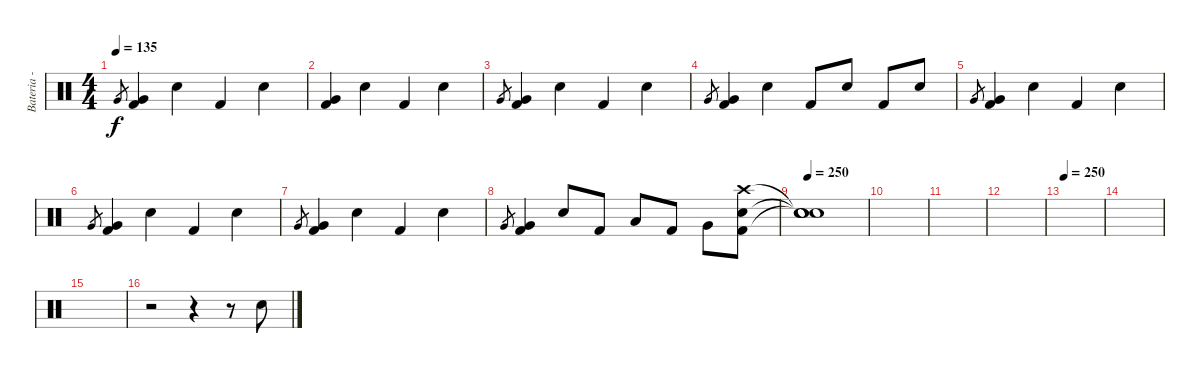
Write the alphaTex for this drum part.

\track ("Bateria - Japinha" "Bateria - ") {instrument percussion}
\staff {score}
\articulation defaults
\ts (4 4)
\tempo 135
\clef neutral
\ks c "Very Low Tom (hit)".8{gr dy f}
("Kick (hit) 2" "Very Low Tom (hit)").4 "Snare (hit) 2".4 "Kick (hit) 2".4 "Snare (hit) 2".4 |
("Kick (hit) 2" "Very Low Tom (hit)").4 "Snare (hit) 2".4 "Kick (hit) 2".4 "Snare (hit) 2".4 |
"Very Low Tom (hit)".8{gr} ("Kick (hit) 2" "Very Low Tom (hit)").4 "Snare (hit) 2".4 "Kick (hit) 2".4 "Snare (hit) 2".4 |
"Very Low Tom (hit)".8{gr} ("Kick (hit) 2" "Very Low Tom (hit)").4 "Snare (hit) 2".4 "Kick (hit) 2".8 "Snare (hit) 2".8 "Kick (hit) 2".8 "Snare (hit) 2".8 |
"Very Low Tom (hit)".8{gr} ("Kick (hit) 2" "Very Low Tom (hit)").4 "Snare (hit) 2".4 "Kick (hit) 2".4 "Snare (hit) 2".4 |
"Very Low Tom (hit)".8{gr} ("Kick (hit) 2" "Very Low Tom (hit)").4 "Snare (hit) 2".4 "Kick (hit) 2".4 "Snare (hit) 2".4 |
"Very Low Tom (hit)".8{gr} ("Kick (hit) 2" "Very Low Tom (hit)").4 "Snare (hit) 2".4 "Kick (hit) 2".4 "Snare (hit) 2".4 |
"Very Low Tom (hit)".8{gr} ("Kick (hit) 2" "Very Low Tom (hit)").4 "Snare (hit) 2".8 "Kick (hit) 2".8 "Low Floor Tom (hit)".8 "Kick (hit) 2".8 "Very Low Tom (hit)".8 ("Kick (hit) 2" "Snare (hit) 2" "Crash high (hit)").8 |
\tempo 250
("Snare (hit)"{t} "Snare (hit)"{t} "Snare (hit)"{t} "Snare (hit)").1 |
|
|
|
\tempo 250
|
|
|
r.2 r.4 r.8 "Snare (hit) 2".8
